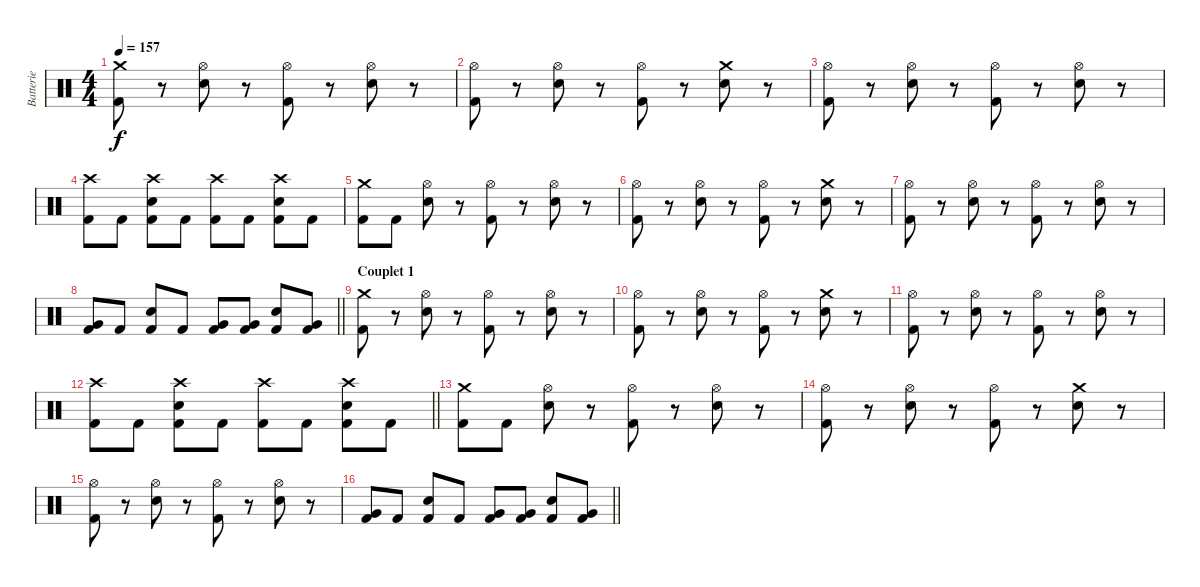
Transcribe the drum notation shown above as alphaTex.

\track ("Batterie" "Batterie") {instrument percussion}
\staff {score}
\articulation defaults
\ts (4 4)
\tempo 157
\clef neutral
\ks c
("Kick (hit) 2" "Crash medium (hit)").8{dy f} r.8 ("Electric Snare (hit)" "Hi-Hat (open)").8 r.8 ("Kick (hit) 2" "Hi-Hat (open)").8 r.8 ("Electric Snare (hit)" "Hi-Hat (open)").8 r.8 |
("Kick (hit) 2" "Hi-Hat (open)").8 r.8 ("Electric Snare (hit)" "Hi-Hat (open)").8 r.8 ("Kick (hit) 2" "Hi-Hat (open)").8 r.8 ("Electric Snare (hit)" "Crash medium (hit)").8 r.8 |
("Kick (hit) 2" "Hi-Hat (open)").8 r.8 ("Electric Snare (hit)" "Hi-Hat (open)").8 r.8 ("Kick (hit) 2" "Hi-Hat (open)").8 r.8 ("Electric Snare (hit)" "Hi-Hat (open)").8 r.8 |
("Kick (hit) 2" "Crash high (hit)").8 "Kick (hit) 2".8 ("Kick (hit) 2" "Electric Snare (hit)" "Crash high (hit)").8 "Kick (hit) 2".8 ("Kick (hit) 2" "Crash high (hit)").8 "Kick (hit) 2".8 ("Kick (hit) 2" "Electric Snare (hit)" "Crash high (hit)").8 "Kick (hit) 2".8 |
("Kick (hit) 2" "Crash medium (hit)").8 "Kick (hit) 2".8 ("Electric Snare (hit)" "Hi-Hat (open)").8 r.8 ("Kick (hit) 2" "Hi-Hat (open)").8 r.8 ("Electric Snare (hit)" "Hi-Hat (open)").8 r.8 |
("Kick (hit) 2" "Hi-Hat (open)").8 r.8 ("Electric Snare (hit)" "Hi-Hat (open)").8 r.8 ("Kick (hit) 2" "Hi-Hat (open)").8 r.8 ("Electric Snare (hit)" "Crash medium (hit)").8 r.8 |
("Kick (hit) 2" "Hi-Hat (open)").8 r.8 ("Electric Snare (hit)" "Hi-Hat (open)").8 r.8 ("Kick (hit) 2" "Hi-Hat (open)").8 r.8 ("Electric Snare (hit)" "Hi-Hat (open)").8 r.8 |
\barLineRight lightlight
("Kick (hit) 2" "Very Low Tom (hit)").8 "Kick (hit) 2".8 ("Kick (hit) 2" "Electric Snare (hit)").8 "Kick (hit) 2".8 ("Kick (hit) 2" "Very Low Tom (hit)").8 ("Kick (hit) 2" "Very Low Tom (hit)").8 ("Kick (hit) 2" "Electric Snare (hit)").8 ("Kick (hit) 2" "Very Low Tom (hit)").8 |
\section ("" "Couplet 1")
("Kick (hit) 2" "Crash medium (hit)").8 r.8 ("Electric Snare (hit)" "Hi-Hat (open)").8 r.8 ("Kick (hit) 2" "Hi-Hat (open)").8 r.8 ("Electric Snare (hit)" "Hi-Hat (open)").8 r.8 |
("Kick (hit) 2" "Hi-Hat (open)").8 r.8 ("Electric Snare (hit)" "Hi-Hat (open)").8 r.8 ("Kick (hit) 2" "Hi-Hat (open)").8 r.8 ("Electric Snare (hit)" "Crash medium (hit)").8 r.8 |
("Kick (hit) 2" "Hi-Hat (open)").8 r.8 ("Electric Snare (hit)" "Hi-Hat (open)").8 r.8 ("Kick (hit) 2" "Hi-Hat (open)").8 r.8 ("Electric Snare (hit)" "Hi-Hat (open)").8 r.8 |
\barLineRight lightlight
("Kick (hit) 2" "Crash high (hit)").8 "Kick (hit) 2".8 ("Kick (hit) 2" "Electric Snare (hit)" "Crash high (hit)").8 "Kick (hit) 2".8 ("Kick (hit) 2" "Crash high (hit)").8 "Kick (hit) 2".8 ("Kick (hit) 2" "Electric Snare (hit)" "Crash high (hit)").8 "Kick (hit) 2".8 |
("Kick (hit) 2" "Crash medium (hit)").8 "Kick (hit) 2".8 ("Electric Snare (hit)" "Hi-Hat (open)").8 r.8 ("Kick (hit) 2" "Hi-Hat (open)").8 r.8 ("Electric Snare (hit)" "Hi-Hat (open)").8 r.8 |
("Kick (hit) 2" "Hi-Hat (open)").8 r.8 ("Electric Snare (hit)" "Hi-Hat (open)").8 r.8 ("Kick (hit) 2" "Hi-Hat (open)").8 r.8 ("Electric Snare (hit)" "Crash medium (hit)").8 r.8 |
("Kick (hit) 2" "Hi-Hat (open)").8 r.8 ("Electric Snare (hit)" "Hi-Hat (open)").8 r.8 ("Kick (hit) 2" "Hi-Hat (open)").8 r.8 ("Electric Snare (hit)" "Hi-Hat (open)").8 r.8 |
\barLineRight lightlight
("Kick (hit) 2" "Very Low Tom (hit)").8 "Kick (hit) 2".8 ("Kick (hit) 2" "Electric Snare (hit)").8 "Kick (hit) 2".8 ("Kick (hit) 2" "Very Low Tom (hit)").8 ("Kick (hit) 2" "Very Low Tom (hit)").8 ("Kick (hit) 2" "Electric Snare (hit)").8 ("Kick (hit) 2" "Very Low Tom (hit)").8
